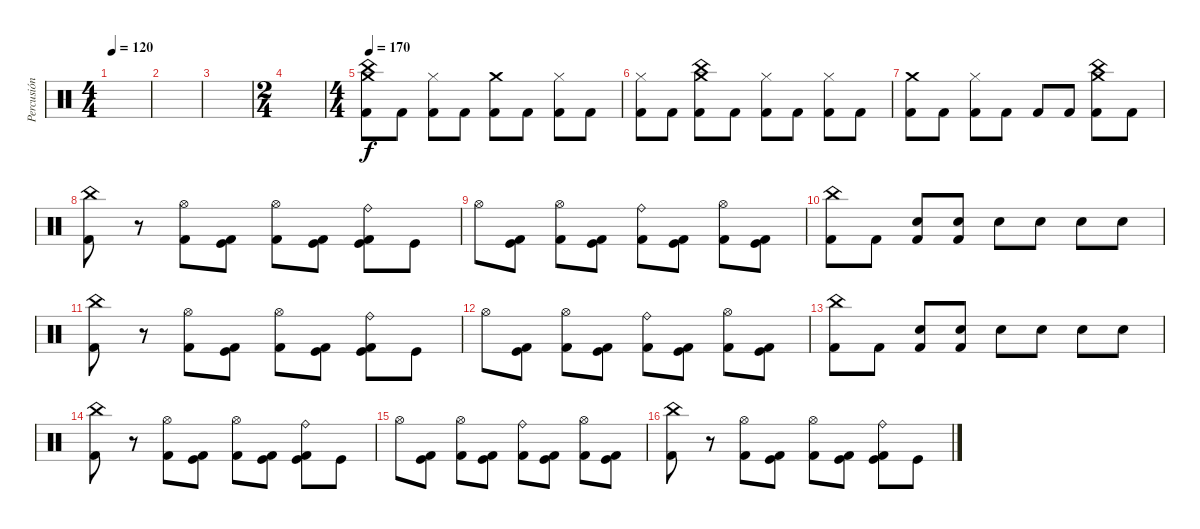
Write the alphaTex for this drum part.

\track ("Percusión" "Percusión") {instrument percussion}
\staff {score}
\articulation defaults
\ts (4 4)
\tempo 120
\clef neutral
\ks c
|
|
|
\ts (2 4)
|
\ts (4 4)
\tempo 170
("China (hit)" "Crash medium (hit)" "Kick (hit) 2").8 "Kick (hit) 2".8 ("Hi-Hat (closed)" "Kick (hit) 2").8 "Kick (hit) 2".8 ("Crash medium (hit)" "Kick (hit) 2").8 "Kick (hit) 2".8 ("Hi-Hat (closed)" "Kick (hit) 2").8 "Kick (hit) 2".8 |
("Hi-Hat (closed)" "Kick (hit) 2").8 "Kick (hit) 2".8 ("China (hit)" "Crash medium (hit)" "Kick (hit) 2").8 "Kick (hit) 2".8 ("Hi-Hat (closed)" "Kick (hit) 2").8 "Kick (hit) 2".8 ("Hi-Hat (closed)" "Kick (hit) 2").8 "Kick (hit) 2".8 |
("Crash medium (hit)" "Kick (hit) 2").8 "Kick (hit) 2".8 ("Hi-Hat (closed)" "Kick (hit) 2").8 "Kick (hit) 2".8 "Kick (hit) 2".8 "Kick (hit) 2".8 ("China (hit)" "Crash medium (hit)" "Kick (hit) 2").8 "Kick (hit) 2".8 |
("China (hit)" "Kick (hit) 2").8 r.8 ("Hi-Hat (open)" "Kick (hit) 2").8 ("Kick (hit)" "Kick (hit) 2").8 ("Hi-Hat (open)" "Kick (hit) 2").8 ("Kick (hit)" "Kick (hit) 2").8 ("Ride (bell)" "Kick (hit)" "Kick (hit) 2").8 "Kick (hit)".8 |
"Hi-Hat (open)".8 ("Kick (hit)" "Kick (hit) 2").8 ("Hi-Hat (open)" "Kick (hit) 2").8 ("Kick (hit)" "Kick (hit) 2").8 ("Ride (bell)" "Kick (hit) 2").8 ("Kick (hit)" "Kick (hit) 2").8 ("Hi-Hat (open)" "Kick (hit) 2").8 ("Kick (hit)" "Kick (hit) 2").8 |
("China (hit)" "Kick (hit) 2").8 "Kick (hit) 2".8 ("Snare (hit) 2" "Kick (hit) 2").8 ("Snare (hit) 2" "Kick (hit) 2").8 "Snare (hit) 2".8 "Snare (hit) 2".8 "Snare (hit) 2".8 "Snare (hit) 2".8 |
("China (hit)" "Kick (hit) 2").8 r.8 ("Hi-Hat (open)" "Kick (hit) 2").8 ("Kick (hit)" "Kick (hit) 2").8 ("Hi-Hat (open)" "Kick (hit) 2").8 ("Kick (hit)" "Kick (hit) 2").8 ("Ride (bell)" "Kick (hit)" "Kick (hit) 2").8 "Kick (hit)".8 |
"Hi-Hat (open)".8 ("Kick (hit)" "Kick (hit) 2").8 ("Hi-Hat (open)" "Kick (hit) 2").8 ("Kick (hit)" "Kick (hit) 2").8 ("Ride (bell)" "Kick (hit) 2").8 ("Kick (hit)" "Kick (hit) 2").8 ("Hi-Hat (open)" "Kick (hit) 2").8 ("Kick (hit)" "Kick (hit) 2").8 |
("China (hit)" "Kick (hit) 2").8 "Kick (hit) 2".8 ("Snare (hit) 2" "Kick (hit) 2").8 ("Snare (hit) 2" "Kick (hit) 2").8 "Snare (hit) 2".8 "Snare (hit) 2".8 "Snare (hit) 2".8 "Snare (hit) 2".8 |
("China (hit)" "Kick (hit) 2").8 r.8 ("Hi-Hat (open)" "Kick (hit) 2").8 ("Kick (hit)" "Kick (hit) 2").8 ("Hi-Hat (open)" "Kick (hit) 2").8 ("Kick (hit)" "Kick (hit) 2").8 ("Ride (bell)" "Kick (hit)" "Kick (hit) 2").8 "Kick (hit)".8 |
"Hi-Hat (open)".8 ("Kick (hit)" "Kick (hit) 2").8 ("Hi-Hat (open)" "Kick (hit) 2").8 ("Kick (hit)" "Kick (hit) 2").8 ("Ride (bell)" "Kick (hit) 2").8 ("Kick (hit)" "Kick (hit) 2").8 ("Hi-Hat (open)" "Kick (hit) 2").8 ("Kick (hit)" "Kick (hit) 2").8 |
("China (hit)" "Kick (hit) 2").8 r.8 ("Hi-Hat (open)" "Kick (hit) 2").8 ("Kick (hit)" "Kick (hit) 2").8 ("Hi-Hat (open)" "Kick (hit) 2").8 ("Kick (hit)" "Kick (hit) 2").8 ("Ride (bell)" "Kick (hit)" "Kick (hit) 2").8 "Kick (hit)".8
